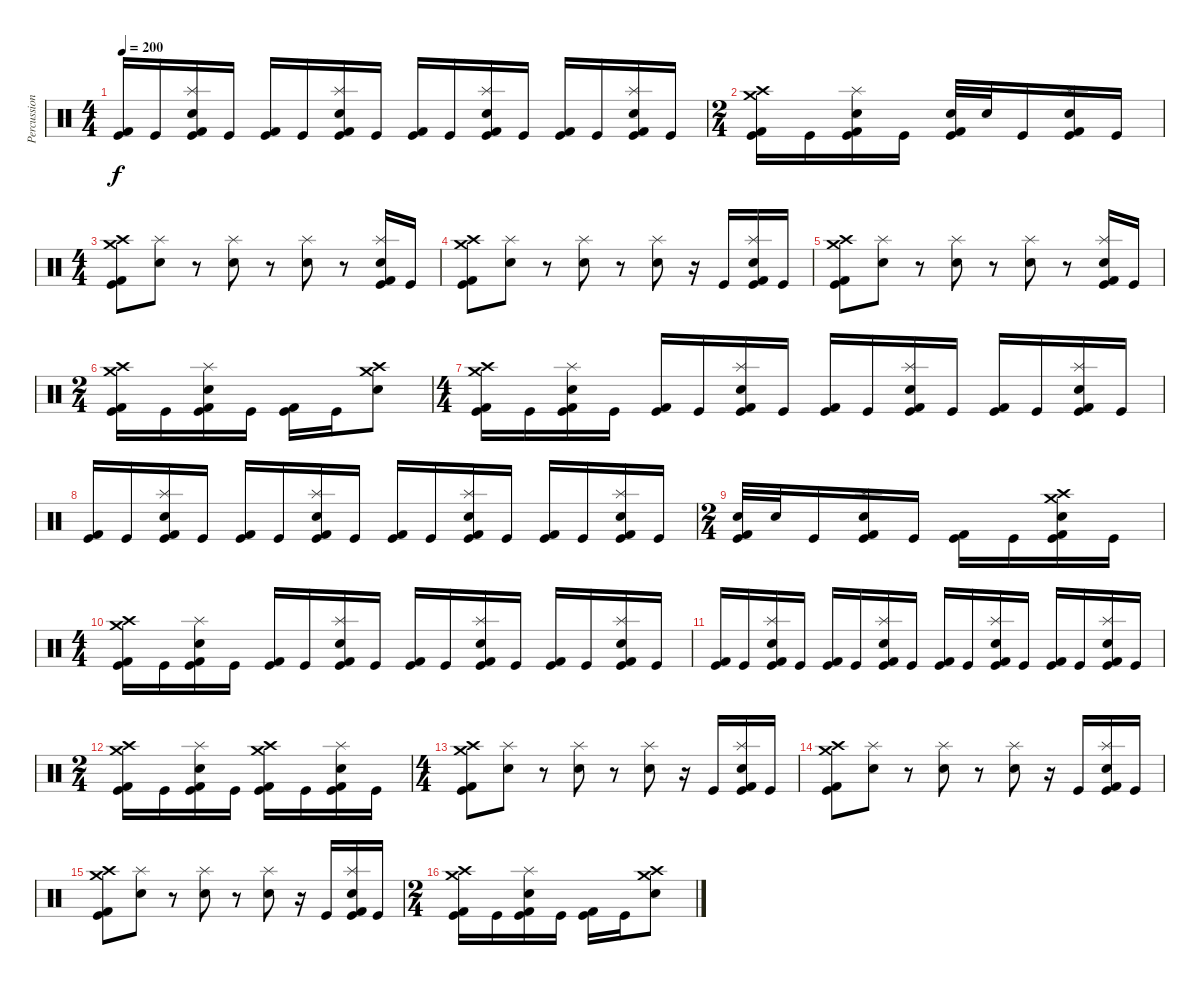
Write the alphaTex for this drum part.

\track ("Percussion" "Percussion") {instrument percussion}
\staff {score}
\articulation defaults
\ts (4 4)
\tempo 200
\clef neutral
\ks c
("Kick (hit) 2" "Kick (hit)").16{dy f} "Kick (hit)".16 ("Splash (hit)" "Snare (hit) 2" "Kick (hit) 2" "Kick (hit)").16 "Kick (hit)".16 ("Kick (hit) 2" "Kick (hit)").16 "Kick (hit)".16 ("Splash (hit)" "Snare (hit) 2" "Kick (hit) 2" "Kick (hit)").16 "Kick (hit)".16 ("Kick (hit) 2" "Kick (hit)").16 "Kick (hit)".16 ("Splash (hit)" "Snare (hit) 2" "Kick (hit) 2" "Kick (hit)").16 "Kick (hit)".16 ("Kick (hit) 2" "Kick (hit)").16 "Kick (hit)".16 ("Splash (hit)" "Snare (hit) 2" "Kick (hit) 2" "Kick (hit)").16 "Kick (hit)".16 |
\ts (2 4)
("Crash high (hit)" "Crash medium (hit)" "Kick (hit) 2" "Kick (hit)").16 "Kick (hit)".16 ("Splash (hit)" "Snare (hit) 2" "Kick (hit) 2" "Kick (hit)").16 "Kick (hit)".16 ("Snare (hit) 2" "Kick (hit) 2" "Kick (hit)").32 "Snare (hit) 2".32 "Kick (hit)".16 ("Splash (hit)" "Snare (hit) 2" "Kick (hit) 2" "Kick (hit)").16 "Kick (hit)".16 |
\ts (4 4)
("Crash high (hit)" "Crash medium (hit)" "Kick (hit) 2" "Kick (hit)").8 ("Splash (hit)" "Snare (hit) 2").8 r.8 ("Splash (hit)" "Snare (hit) 2").8 r.8 ("Splash (hit)" "Snare (hit) 2").8 r.8 ("Splash (hit)" "Snare (hit) 2" "Kick (hit) 2" "Kick (hit)").16 "Kick (hit)".16 |
("Crash high (hit)" "Crash medium (hit)" "Kick (hit) 2" "Kick (hit)").8 ("Splash (hit)" "Snare (hit) 2").8 r.8 ("Splash (hit)" "Snare (hit) 2").8 r.8 ("Splash (hit)" "Snare (hit) 2").8 r.16 "Kick (hit)".16 ("Splash (hit)" "Snare (hit) 2" "Kick (hit) 2" "Kick (hit)").16 "Kick (hit)".16 |
("Crash high (hit)" "Crash medium (hit)" "Kick (hit) 2" "Kick (hit)").8 ("Splash (hit)" "Snare (hit) 2").8 r.8 ("Splash (hit)" "Snare (hit) 2").8 r.8 ("Splash (hit)" "Snare (hit) 2").8 r.8 ("Splash (hit)" "Snare (hit) 2" "Kick (hit) 2" "Kick (hit)").16 "Kick (hit)".16 |
\ts (2 4)
("Crash high (hit)" "Crash medium (hit)" "Kick (hit) 2" "Kick (hit)").16 "Kick (hit)".16 ("Splash (hit)" "Snare (hit) 2" "Kick (hit) 2" "Kick (hit)").16 "Kick (hit)".16 ("Kick (hit) 2" "Kick (hit)").16 "Kick (hit)".16 ("Crash high (hit)" "Crash medium (hit)" "Snare (hit) 2").8 |
\ts (4 4)
("Crash high (hit)" "Crash medium (hit)" "Kick (hit) 2" "Kick (hit)").16 "Kick (hit)".16 ("Splash (hit)" "Snare (hit) 2" "Kick (hit) 2" "Kick (hit)").16 "Kick (hit)".16 ("Kick (hit) 2" "Kick (hit)").16 "Kick (hit)".16 ("Splash (hit)" "Snare (hit) 2" "Kick (hit) 2" "Kick (hit)").16 "Kick (hit)".16 ("Kick (hit) 2" "Kick (hit)").16 "Kick (hit)".16 ("Splash (hit)" "Snare (hit) 2" "Kick (hit) 2" "Kick (hit)").16 "Kick (hit)".16 ("Kick (hit) 2" "Kick (hit)").16 "Kick (hit)".16 ("Splash (hit)" "Snare (hit) 2" "Kick (hit) 2" "Kick (hit)").16 "Kick (hit)".16 |
("Kick (hit) 2" "Kick (hit)").16 "Kick (hit)".16 ("Splash (hit)" "Snare (hit) 2" "Kick (hit) 2" "Kick (hit)").16 "Kick (hit)".16 ("Kick (hit) 2" "Kick (hit)").16 "Kick (hit)".16 ("Splash (hit)" "Snare (hit) 2" "Kick (hit) 2" "Kick (hit)").16 "Kick (hit)".16 ("Kick (hit) 2" "Kick (hit)").16 "Kick (hit)".16 ("Splash (hit)" "Snare (hit) 2" "Kick (hit) 2" "Kick (hit)").16 "Kick (hit)".16 ("Kick (hit) 2" "Kick (hit)").16 "Kick (hit)".16 ("Splash (hit)" "Snare (hit) 2" "Kick (hit) 2" "Kick (hit)").16 "Kick (hit)".16 |
\ts (2 4)
("Snare (hit) 2" "Kick (hit) 2" "Kick (hit)").32 "Snare (hit) 2".32 "Kick (hit)".16 ("Splash (hit)" "Snare (hit) 2" "Kick (hit) 2" "Kick (hit)").16 "Kick (hit)".16 ("Kick (hit) 2" "Kick (hit)").16 "Kick (hit)".16 ("Crash high (hit)" "Crash medium (hit)" "Snare (hit) 2" "Kick (hit) 2" "Kick (hit)").16 "Kick (hit)".16 |
\ts (4 4)
("Crash high (hit)" "Crash medium (hit)" "Kick (hit) 2" "Kick (hit)").16 "Kick (hit)".16 ("Splash (hit)" "Snare (hit) 2" "Kick (hit) 2" "Kick (hit)").16 "Kick (hit)".16 ("Kick (hit) 2" "Kick (hit)").16 "Kick (hit)".16 ("Splash (hit)" "Snare (hit) 2" "Kick (hit) 2" "Kick (hit)").16 "Kick (hit)".16 ("Kick (hit) 2" "Kick (hit)").16 "Kick (hit)".16 ("Splash (hit)" "Snare (hit) 2" "Kick (hit) 2" "Kick (hit)").16 "Kick (hit)".16 ("Kick (hit) 2" "Kick (hit)").16 "Kick (hit)".16 ("Splash (hit)" "Snare (hit) 2" "Kick (hit) 2" "Kick (hit)").16 "Kick (hit)".16 |
("Kick (hit) 2" "Kick (hit)").16 "Kick (hit)".16 ("Splash (hit)" "Snare (hit) 2" "Kick (hit) 2" "Kick (hit)").16 "Kick (hit)".16 ("Kick (hit) 2" "Kick (hit)").16 "Kick (hit)".16 ("Splash (hit)" "Snare (hit) 2" "Kick (hit) 2" "Kick (hit)").16 "Kick (hit)".16 ("Kick (hit) 2" "Kick (hit)").16 "Kick (hit)".16 ("Splash (hit)" "Snare (hit) 2" "Kick (hit) 2" "Kick (hit)").16 "Kick (hit)".16 ("Kick (hit) 2" "Kick (hit)").16 "Kick (hit)".16 ("Splash (hit)" "Snare (hit) 2" "Kick (hit) 2" "Kick (hit)").16 "Kick (hit)".16 |
\ts (2 4)
("Crash high (hit)" "Crash medium (hit)" "Kick (hit) 2" "Kick (hit)").16 "Kick (hit)".16 ("Splash (hit)" "Snare (hit) 2" "Kick (hit) 2" "Kick (hit)").16 "Kick (hit)".16 ("Crash high (hit)" "Crash medium (hit)" "Kick (hit) 2" "Kick (hit)").16 "Kick (hit)".16 ("Splash (hit)" "Snare (hit) 2" "Kick (hit) 2" "Kick (hit)").16 "Kick (hit)".16 |
\ts (4 4)
("Crash high (hit)" "Crash medium (hit)" "Kick (hit) 2" "Kick (hit)").8 ("Splash (hit)" "Snare (hit) 2").8 r.8 ("Splash (hit)" "Snare (hit) 2").8 r.8 ("Splash (hit)" "Snare (hit) 2").8 r.16 "Kick (hit)".16 ("Splash (hit)" "Snare (hit) 2" "Kick (hit) 2" "Kick (hit)").16 "Kick (hit)".16 |
("Crash high (hit)" "Crash medium (hit)" "Kick (hit) 2" "Kick (hit)").8 ("Splash (hit)" "Snare (hit) 2").8 r.8 ("Splash (hit)" "Snare (hit) 2").8 r.8 ("Splash (hit)" "Snare (hit) 2").8 r.16 "Kick (hit)".16 ("Splash (hit)" "Snare (hit) 2" "Kick (hit) 2" "Kick (hit)").16 "Kick (hit)".16 |
("Crash high (hit)" "Crash medium (hit)" "Kick (hit) 2" "Kick (hit)").8 ("Splash (hit)" "Snare (hit) 2").8 r.8 ("Splash (hit)" "Snare (hit) 2").8 r.8 ("Splash (hit)" "Snare (hit) 2").8 r.16 "Kick (hit)".16 ("Splash (hit)" "Snare (hit) 2" "Kick (hit) 2" "Kick (hit)").16 "Kick (hit)".16 |
\ts (2 4)
("Crash high (hit)" "Crash medium (hit)" "Kick (hit) 2" "Kick (hit)").16 "Kick (hit)".16 ("Splash (hit)" "Snare (hit) 2" "Kick (hit) 2" "Kick (hit)").16 "Kick (hit)".16 ("Kick (hit) 2" "Kick (hit)").16 "Kick (hit)".16 ("Crash high (hit)" "Crash medium (hit)" "Snare (hit) 2").8
